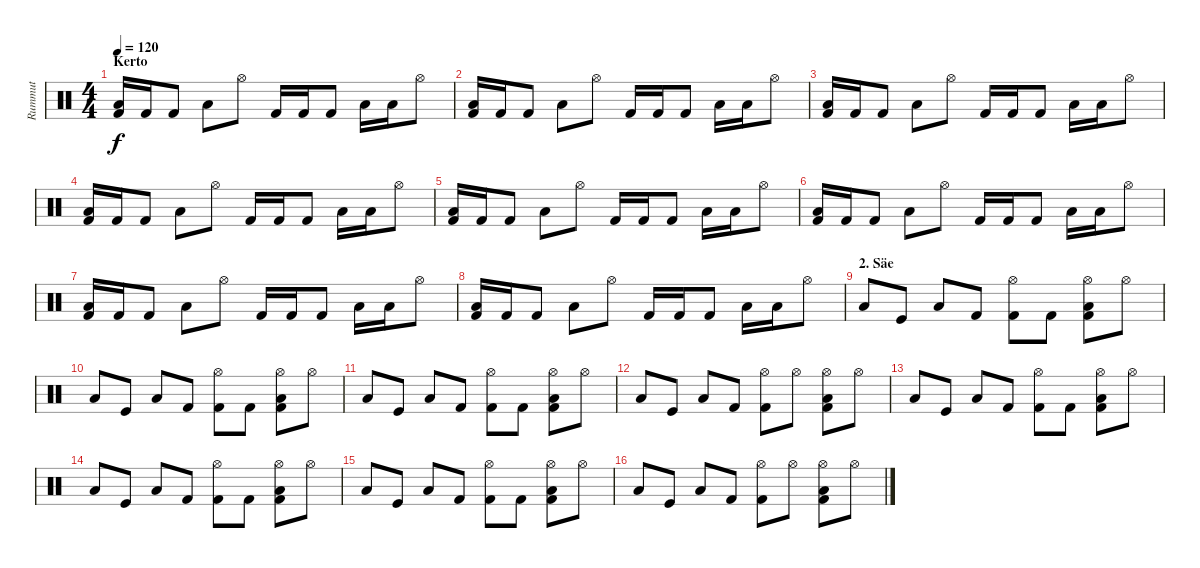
\track ("Rummut" "Rummut") {instrument percussion}
\staff {score}
\articulation defaults
\ts (4 4)
\section ("" "Kerto")
\tempo 120
\clef neutral
\ks c
("Kick (hit) 2" "Low Tom (hit)").16{dy f} "Kick (hit) 2".16 "Kick (hit) 2".8 "Low Tom (hit)".8 "Hi-Hat (open)".8 "Kick (hit) 2".16 "Kick (hit) 2".16 "Kick (hit) 2".8 "Low Tom (hit)".16 "Low Tom (hit)".16 "Hi-Hat (open)".8 |
("Kick (hit) 2" "Low Tom (hit)").16 "Kick (hit) 2".16 "Kick (hit) 2".8 "Low Tom (hit)".8 "Hi-Hat (open)".8 "Kick (hit) 2".16 "Kick (hit) 2".16 "Kick (hit) 2".8 "Low Tom (hit)".16 "Low Tom (hit)".16 "Hi-Hat (open)".8 |
("Kick (hit) 2" "Low Tom (hit)").16 "Kick (hit) 2".16 "Kick (hit) 2".8 "Low Tom (hit)".8 "Hi-Hat (open)".8 "Kick (hit) 2".16 "Kick (hit) 2".16 "Kick (hit) 2".8 "Low Tom (hit)".16 "Low Tom (hit)".16 "Hi-Hat (open)".8 |
("Kick (hit) 2" "Low Tom (hit)").16 "Kick (hit) 2".16 "Kick (hit) 2".8 "Low Tom (hit)".8 "Hi-Hat (open)".8 "Kick (hit) 2".16 "Kick (hit) 2".16 "Kick (hit) 2".8 "Low Tom (hit)".16 "Low Tom (hit)".16 "Hi-Hat (open)".8 |
("Kick (hit) 2" "Low Tom (hit)").16 "Kick (hit) 2".16 "Kick (hit) 2".8 "Low Tom (hit)".8 "Hi-Hat (open)".8 "Kick (hit) 2".16 "Kick (hit) 2".16 "Kick (hit) 2".8 "Low Tom (hit)".16 "Low Tom (hit)".16 "Hi-Hat (open)".8 |
("Kick (hit) 2" "Low Tom (hit)").16 "Kick (hit) 2".16 "Kick (hit) 2".8 "Low Tom (hit)".8 "Hi-Hat (open)".8 "Kick (hit) 2".16 "Kick (hit) 2".16 "Kick (hit) 2".8 "Low Tom (hit)".16 "Low Tom (hit)".16 "Hi-Hat (open)".8 |
("Kick (hit) 2" "Low Tom (hit)").16 "Kick (hit) 2".16 "Kick (hit) 2".8 "Low Tom (hit)".8 "Hi-Hat (open)".8 "Kick (hit) 2".16 "Kick (hit) 2".16 "Kick (hit) 2".8 "Low Tom (hit)".16 "Low Tom (hit)".16 "Hi-Hat (open)".8 |
("Kick (hit) 2" "Low Tom (hit)").16 "Kick (hit) 2".16 "Kick (hit) 2".8 "Low Tom (hit)".8 "Hi-Hat (open)".8 "Kick (hit) 2".16 "Kick (hit) 2".16 "Kick (hit) 2".8 "Low Tom (hit)".16 "Low Tom (hit)".16 "Hi-Hat (open)".8 |
\section ("" "2. Säe")
"Low Tom (hit)".8 "Kick (hit)".8 "Low Tom (hit)".8 "Kick (hit) 2".8 ("Hi-Hat (open)" "Kick (hit) 2").8 "Kick (hit) 2".8 ("Hi-Hat (open)" "Kick (hit) 2" "Low Tom (hit)").8 "Hi-Hat (open)".8 |
"Low Tom (hit)".8 "Kick (hit)".8 "Low Tom (hit)".8 "Kick (hit) 2".8 ("Hi-Hat (open)" "Kick (hit) 2").8 "Kick (hit) 2".8 ("Hi-Hat (open)" "Kick (hit) 2" "Low Tom (hit)").8 "Hi-Hat (open)".8 |
"Low Tom (hit)".8 "Kick (hit)".8 "Low Tom (hit)".8 "Kick (hit) 2".8 ("Hi-Hat (open)" "Kick (hit) 2").8 "Kick (hit) 2".8 ("Hi-Hat (open)" "Kick (hit) 2" "Low Tom (hit)").8 "Hi-Hat (open)".8 |
"Low Tom (hit)".8 "Kick (hit)".8 "Low Tom (hit)".8 "Kick (hit) 2".8 ("Hi-Hat (open)" "Kick (hit) 2").8 "Hi-Hat (open)".8 ("Hi-Hat (open)" "Kick (hit) 2" "Low Tom (hit)").8 "Hi-Hat (open)".8 |
"Low Tom (hit)".8 "Kick (hit)".8 "Low Tom (hit)".8 "Kick (hit) 2".8 ("Hi-Hat (open)" "Kick (hit) 2").8 "Kick (hit) 2".8 ("Hi-Hat (open)" "Kick (hit) 2" "Low Tom (hit)").8 "Hi-Hat (open)".8 |
"Low Tom (hit)".8 "Kick (hit)".8 "Low Tom (hit)".8 "Kick (hit) 2".8 ("Hi-Hat (open)" "Kick (hit) 2").8 "Kick (hit) 2".8 ("Hi-Hat (open)" "Kick (hit) 2" "Low Tom (hit)").8 "Hi-Hat (open)".8 |
"Low Tom (hit)".8 "Kick (hit)".8 "Low Tom (hit)".8 "Kick (hit) 2".8 ("Hi-Hat (open)" "Kick (hit) 2").8 "Kick (hit) 2".8 ("Hi-Hat (open)" "Kick (hit) 2" "Low Tom (hit)").8 "Hi-Hat (open)".8 |
"Low Tom (hit)".8 "Kick (hit)".8 "Low Tom (hit)".8 "Kick (hit) 2".8 ("Hi-Hat (open)" "Kick (hit) 2").8 "Hi-Hat (open)".8 ("Hi-Hat (open)" "Kick (hit) 2" "Low Tom (hit)").8 "Hi-Hat (open)".8
